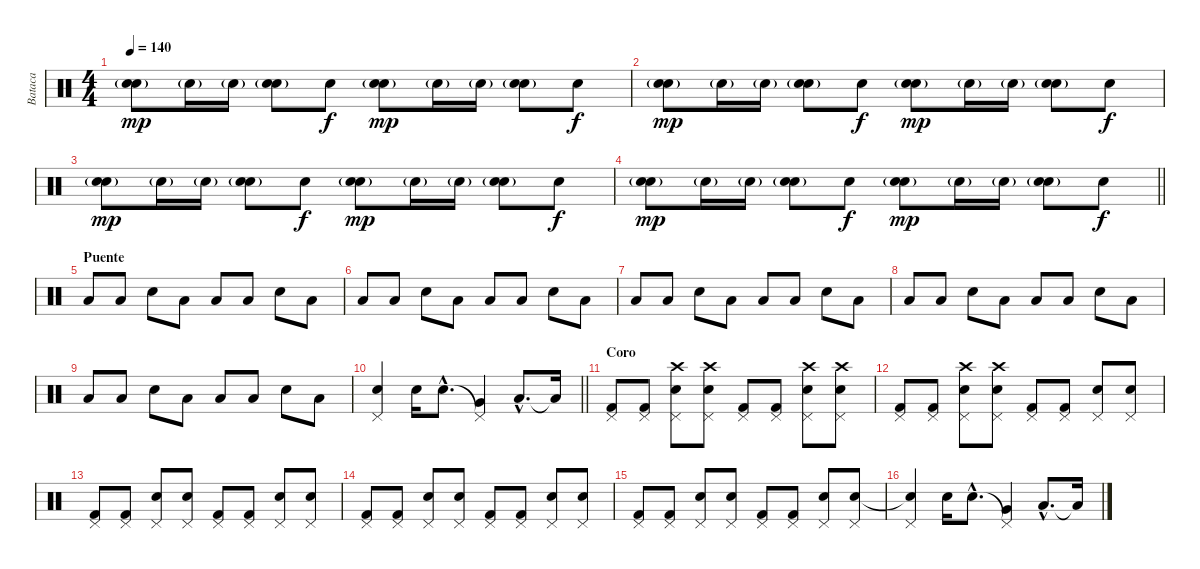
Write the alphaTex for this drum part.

\track ("Bataca" "Bataca") {instrument percussion}
\staff {score}
\articulation defaults
\ts (4 4)
\tempo 140
\clef neutral
\ks c
("Snare (hit) 2" "Electric Snare (hit)"{g}).8{dy mp} "Electric Snare (hit)"{g}.16 "Electric Snare (hit)"{g}.16 ("Snare (hit) 2" "Electric Snare (hit)"{g}).8 "Electric Snare (hit)".8{dy f} ("Snare (hit) 2" "Electric Snare (hit)"{g}).8{dy mp} "Electric Snare (hit)"{g}.16 "Electric Snare (hit)"{g}.16 ("Snare (hit) 2" "Electric Snare (hit)"{g}).8 "Electric Snare (hit)".8{dy f} |
("Snare (hit) 2" "Electric Snare (hit)"{g}).8{dy mp} "Electric Snare (hit)"{g}.16 "Electric Snare (hit)"{g}.16 ("Snare (hit) 2" "Electric Snare (hit)"{g}).8 "Electric Snare (hit)".8{dy f} ("Snare (hit) 2" "Electric Snare (hit)"{g}).8{dy mp} "Electric Snare (hit)"{g}.16 "Electric Snare (hit)"{g}.16 ("Snare (hit) 2" "Electric Snare (hit)"{g}).8 "Electric Snare (hit)".8{dy f} |
("Snare (hit) 2" "Electric Snare (hit)"{g}).8{dy mp} "Electric Snare (hit)"{g}.16 "Electric Snare (hit)"{g}.16 ("Snare (hit) 2" "Electric Snare (hit)"{g}).8 "Electric Snare (hit)".8{dy f} ("Snare (hit) 2" "Electric Snare (hit)"{g}).8{dy mp} "Electric Snare (hit)"{g}.16 "Electric Snare (hit)"{g}.16 ("Snare (hit) 2" "Electric Snare (hit)"{g}).8 "Electric Snare (hit)".8{dy f} |
\barLineRight lightlight
("Snare (hit) 2" "Electric Snare (hit)"{g}).8{dy mp} "Electric Snare (hit)"{g}.16 "Electric Snare (hit)"{g}.16 ("Snare (hit) 2" "Electric Snare (hit)"{g}).8 "Electric Snare (hit)".8{dy f} ("Snare (hit) 2" "Electric Snare (hit)"{g}).8{dy mp} "Electric Snare (hit)"{g}.16 "Electric Snare (hit)"{g}.16 ("Snare (hit) 2" "Electric Snare (hit)"{g}).8 "Electric Snare (hit)".8{dy f} |
\section ("" "Puente")
"Low Floor Tom (hit)".8 "Low Floor Tom (hit)".8 "Electric Snare (hit)".8 "Low Floor Tom (hit)".8 "Low Floor Tom (hit)".8 "Low Floor Tom (hit)".8 "Electric Snare (hit)".8 "Low Floor Tom (hit)".8 |
"Low Floor Tom (hit)".8 "Low Floor Tom (hit)".8 "Electric Snare (hit)".8 "Low Floor Tom (hit)".8 "Low Floor Tom (hit)".8 "Low Floor Tom (hit)".8 "Electric Snare (hit)".8 "Low Floor Tom (hit)".8 |
"Low Floor Tom (hit)".8 "Low Floor Tom (hit)".8 "Electric Snare (hit)".8 "Low Floor Tom (hit)".8 "Low Floor Tom (hit)".8 "Low Floor Tom (hit)".8 "Electric Snare (hit)".8 "Low Floor Tom (hit)".8 |
"Low Floor Tom (hit)".8 "Low Floor Tom (hit)".8 "Electric Snare (hit)".8 "Low Floor Tom (hit)".8 "Low Floor Tom (hit)".8 "Low Floor Tom (hit)".8 "Electric Snare (hit)".8 "Low Floor Tom (hit)".8 |
"Low Floor Tom (hit)".8 "Low Floor Tom (hit)".8 "Electric Snare (hit)".8 "Low Floor Tom (hit)".8 "Low Floor Tom (hit)".8 "Low Floor Tom (hit)".8 "Electric Snare (hit)".8 "Low Floor Tom (hit)".8 |
\barLineRight lightlight
("Pedal Hi-Hat (hit)" "Electric Snare (hit)").4 "Electric Snare (hit)".16 "Electric Snare (hit)"{hac}.8{d} ("Pedal Hi-Hat (hit)"{t} "Very Low Tom (hit)").4 "Low Floor Tom (hit)"{hac}.8{d} "Low Floor Tom (hit)"{t}.16 |
\section ("" "Coro")
("Pedal Hi-Hat (hit)" "Kick (hit) 2").8 ("Pedal Hi-Hat (hit)" "Kick (hit) 2").8 ("Crash high (hit)" "Pedal Hi-Hat (hit)" "Electric Snare (hit)").8 ("Crash high (hit)" "Pedal Hi-Hat (hit)" "Electric Snare (hit)").8 ("Pedal Hi-Hat (hit)" "Kick (hit) 2").8 ("Pedal Hi-Hat (hit)" "Kick (hit) 2").8 ("Crash high (hit)" "Pedal Hi-Hat (hit)" "Electric Snare (hit)").8 ("Crash high (hit)" "Pedal Hi-Hat (hit)" "Electric Snare (hit)").8 |
("Pedal Hi-Hat (hit)" "Kick (hit) 2").8 ("Pedal Hi-Hat (hit)" "Kick (hit) 2").8 ("Crash high (hit)" "Pedal Hi-Hat (hit)" "Electric Snare (hit)").8 ("Crash high (hit)" "Pedal Hi-Hat (hit)" "Electric Snare (hit)").8 ("Pedal Hi-Hat (hit)" "Kick (hit) 2").8 ("Pedal Hi-Hat (hit)" "Kick (hit) 2").8 ("Pedal Hi-Hat (hit)" "Electric Snare (hit)").8 ("Pedal Hi-Hat (hit)" "Electric Snare (hit)").8 |
("Pedal Hi-Hat (hit)" "Kick (hit) 2").8 ("Pedal Hi-Hat (hit)" "Kick (hit) 2").8 ("Pedal Hi-Hat (hit)" "Electric Snare (hit)").8 ("Pedal Hi-Hat (hit)" "Electric Snare (hit)").8 ("Pedal Hi-Hat (hit)" "Kick (hit) 2").8 ("Pedal Hi-Hat (hit)" "Kick (hit) 2").8 ("Pedal Hi-Hat (hit)" "Electric Snare (hit)").8 ("Pedal Hi-Hat (hit)" "Electric Snare (hit)").8 |
("Pedal Hi-Hat (hit)" "Kick (hit) 2").8 ("Pedal Hi-Hat (hit)" "Kick (hit) 2").8 ("Pedal Hi-Hat (hit)" "Electric Snare (hit)").8 ("Pedal Hi-Hat (hit)" "Electric Snare (hit)").8 ("Pedal Hi-Hat (hit)" "Kick (hit) 2").8 ("Pedal Hi-Hat (hit)" "Kick (hit) 2").8 ("Pedal Hi-Hat (hit)" "Electric Snare (hit)").8 ("Pedal Hi-Hat (hit)" "Electric Snare (hit)").8 |
("Pedal Hi-Hat (hit)" "Kick (hit) 2").8 ("Pedal Hi-Hat (hit)" "Kick (hit) 2").8 ("Pedal Hi-Hat (hit)" "Electric Snare (hit)").8 ("Pedal Hi-Hat (hit)" "Electric Snare (hit)").8 ("Pedal Hi-Hat (hit)" "Kick (hit) 2").8 ("Pedal Hi-Hat (hit)" "Kick (hit) 2").8 ("Pedal Hi-Hat (hit)" "Electric Snare (hit)").8 ("Pedal Hi-Hat (hit)" "Electric Snare (hit)").8 |
("Pedal Hi-Hat (hit)" "Electric Snare (hit)"{t}).4 "Electric Snare (hit)".16 "Electric Snare (hit)"{hac}.8{d} ("Pedal Hi-Hat (hit)"{t} "Very Low Tom (hit)").4 "Low Floor Tom (hit)"{hac}.8{d} "Low Floor Tom (hit)"{t}.16
